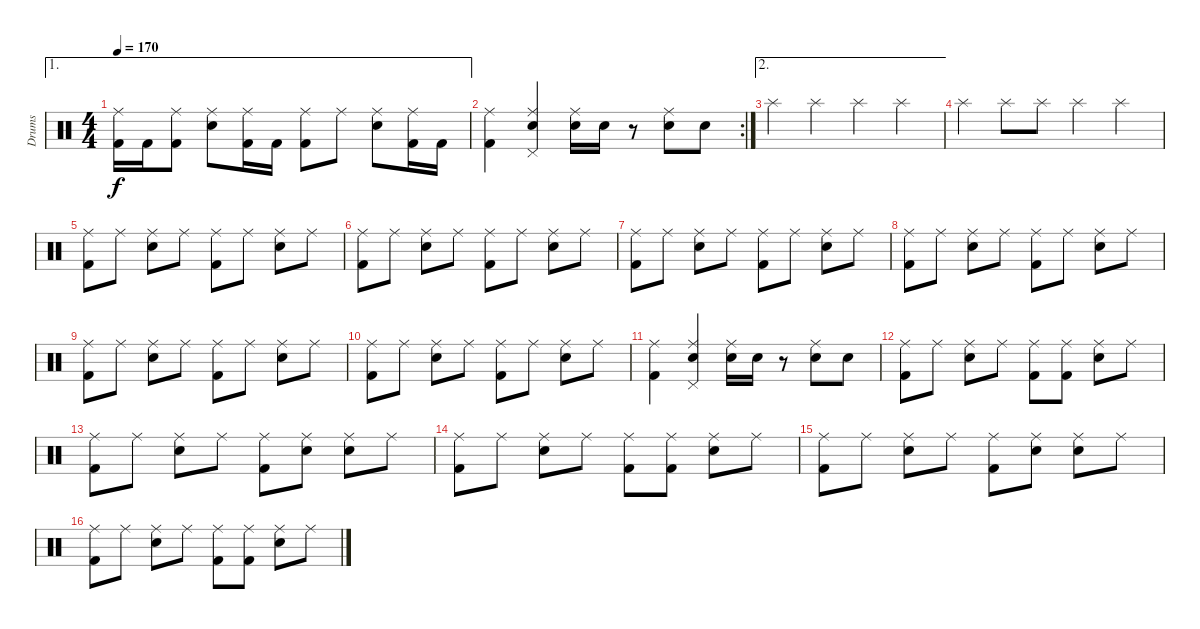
\track ("Drums" "Drums") {instrument percussion}
\staff {score}
\articulation defaults
\ae 1
\ts (4 4)
\tempo 170
\clef neutral
\ks c
("Ride (middle)" "Kick (hit) 2").16{dy f} "Kick (hit) 2".16 ("Ride (middle)" "Kick (hit) 2").8 ("Ride (middle)" "Snare (hit) 2").8 ("Ride (middle)" "Kick (hit) 2").16 "Kick (hit) 2".16 ("Ride (middle)" "Kick (hit) 2").8 "Ride (middle)".8 ("Ride (middle)" "Snare (hit) 2").8 ("Ride (middle)" "Kick (hit) 2").16 "Kick (hit) 2".16 |
\rc 2
("Ride (middle)" "Kick (hit) 2").4 ("Ride (middle)" "Snare (hit) 2" "Pedal Hi-Hat (hit)").4 ("Ride (middle)" "Snare (hit) 2").16 "Snare (hit) 2".16 r.8 ("Ride (middle)" "Snare (hit) 2").8 "Snare (hit) 2".8 |
\ae 2 "Splash (hit)".4 "Splash (hit)".4 "Splash (hit)".4 "Splash (hit)".4
|
"Splash (hit)".4 "Splash (hit)".8 "Splash (hit)".8 "Splash (hit)".4 "Splash (hit)".4 |
("Ride (middle)" "Kick (hit) 2").8 "Ride (middle)".8 ("Ride (middle)" "Snare (hit) 2").8 "Ride (middle)".8 ("Ride (middle)" "Kick (hit) 2").8 "Ride (middle)".8 ("Ride (middle)" "Snare (hit) 2").8 "Ride (middle)".8 |
("Ride (middle)" "Kick (hit) 2").8 "Ride (middle)".8 ("Ride (middle)" "Snare (hit) 2").8 "Ride (middle)".8 ("Ride (middle)" "Kick (hit) 2").8 "Ride (middle)".8 ("Ride (middle)" "Snare (hit) 2").8 "Ride (middle)".8 |
("Ride (middle)" "Kick (hit) 2").8 "Ride (middle)".8 ("Ride (middle)" "Snare (hit) 2").8 "Ride (middle)".8 ("Ride (middle)" "Kick (hit) 2").8 "Ride (middle)".8 ("Ride (middle)" "Snare (hit) 2").8 "Ride (middle)".8 |
("Ride (middle)" "Kick (hit) 2").8 "Ride (middle)".8 ("Ride (middle)" "Snare (hit) 2").8 "Ride (middle)".8 ("Ride (middle)" "Kick (hit) 2").8 "Ride (middle)".8 ("Ride (middle)" "Snare (hit) 2").8 "Ride (middle)".8 |
("Ride (middle)" "Kick (hit) 2").8 "Ride (middle)".8 ("Ride (middle)" "Snare (hit) 2").8 "Ride (middle)".8 ("Ride (middle)" "Kick (hit) 2").8 "Ride (middle)".8 ("Ride (middle)" "Snare (hit) 2").8 "Ride (middle)".8 |
("Ride (middle)" "Kick (hit) 2").8 "Ride (middle)".8 ("Ride (middle)" "Snare (hit) 2").8 "Ride (middle)".8 ("Ride (middle)" "Kick (hit) 2").8 "Ride (middle)".8 ("Ride (middle)" "Snare (hit) 2").8 "Ride (middle)".8 |
("Ride (middle)" "Kick (hit) 2").4 ("Ride (middle)" "Snare (hit) 2" "Pedal Hi-Hat (hit)").4 ("Ride (middle)" "Snare (hit) 2").16 "Snare (hit) 2".16 r.8 ("Ride (middle)" "Snare (hit) 2").8 "Snare (hit) 2".8 |
("Ride (middle)" "Kick (hit) 2").8 "Ride (middle)".8 ("Ride (middle)" "Snare (hit) 2").8 "Ride (middle)".8 ("Ride (middle)" "Kick (hit) 2").8 ("Ride (middle)" "Kick (hit) 2").8 ("Ride (middle)" "Snare (hit) 2").8 "Ride (middle)".8 |
("Ride (middle)" "Kick (hit) 2").8 "Ride (middle)".8 ("Ride (middle)" "Snare (hit) 2").8 "Ride (middle)".8 ("Ride (middle)" "Kick (hit) 2").8 ("Ride (middle)" "Snare (hit) 2").8 ("Ride (middle)" "Snare (hit) 2").8 "Ride (middle)".8 |
("Ride (middle)" "Kick (hit) 2").8 "Ride (middle)".8 ("Ride (middle)" "Snare (hit) 2").8 "Ride (middle)".8 ("Ride (middle)" "Kick (hit) 2").8 ("Ride (middle)" "Kick (hit) 2").8 ("Ride (middle)" "Snare (hit) 2").8 "Ride (middle)".8 |
("Ride (middle)" "Kick (hit) 2").8 "Ride (middle)".8 ("Ride (middle)" "Snare (hit) 2").8 "Ride (middle)".8 ("Ride (middle)" "Kick (hit) 2").8 ("Ride (middle)" "Snare (hit) 2").8 ("Ride (middle)" "Snare (hit) 2").8 "Ride (middle)".8 |
("Ride (middle)" "Kick (hit) 2").8 "Ride (middle)".8 ("Ride (middle)" "Snare (hit) 2").8 "Ride (middle)".8 ("Ride (middle)" "Kick (hit) 2").8 ("Ride (middle)" "Kick (hit) 2").8 ("Ride (middle)" "Snare (hit) 2").8 "Ride (middle)".8
